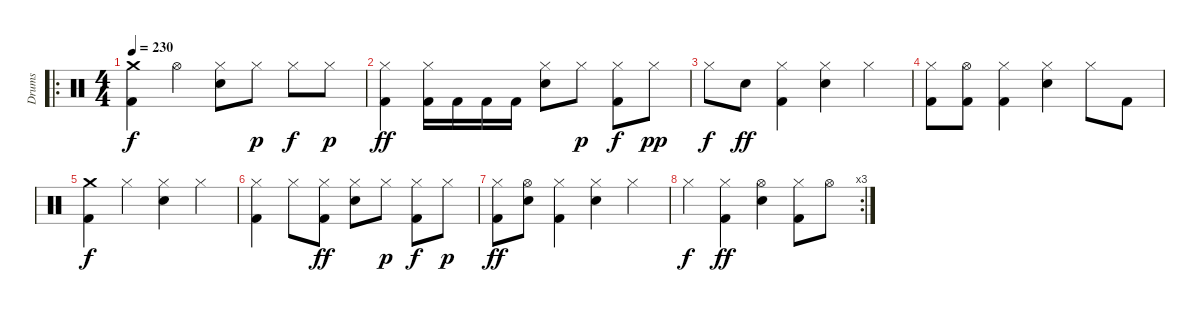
\track ("Drums" "Drums") {instrument percussion}
\staff {score}
\articulation defaults
\ro
\ts (4 4)
\tempo 230
\clef neutral
\ks c
("Crash medium (hit)" "Kick (hit) 2").4{dy f} "Hi-Hat (open)".4 ("Hi-Hat (closed)" "Electric Snare (hit)").8 "Hi-Hat (closed)".8{dy p} "Hi-Hat (closed)".8{dy f} "Hi-Hat (closed)".8{dy p} |
("Hi-Hat (closed)" "Kick (hit) 2").4{dy ff} ("Hi-Hat (closed)" "Kick (hit) 2").16 "Kick (hit) 2".16 "Kick (hit) 2".16 "Kick (hit) 2".16 ("Hi-Hat (closed)" "Electric Snare (hit)").8 "Hi-Hat (closed)".8{dy p} ("Hi-Hat (closed)" "Kick (hit) 2").8{dy f} "Hi-Hat (closed)".8{dy pp} |
"Hi-Hat (closed)".8{dy f} "Electric Snare (hit)".8{dy ff} ("Hi-Hat (closed)" "Kick (hit) 2").4 ("Hi-Hat (closed)" "Electric Snare (hit)").4 "Hi-Hat (closed)".4 |
("Hi-Hat (closed)" "Kick (hit) 2").8 ("Hi-Hat (open)" "Kick (hit) 2").8 ("Hi-Hat (closed)" "Kick (hit) 2").4 ("Hi-Hat (closed)" "Electric Snare (hit)").4 "Hi-Hat (closed)".8 "Kick (hit) 2".8 |
("Crash medium (hit)" "Kick (hit) 2").4{dy f} "Hi-Hat (closed)".4 ("Hi-Hat (closed)" "Electric Snare (hit)").4 "Hi-Hat (closed)".4 |
("Hi-Hat (closed)" "Kick (hit) 2").4 "Hi-Hat (closed)".8 ("Hi-Hat (closed)" "Kick (hit) 2").8{dy ff} ("Hi-Hat (closed)" "Electric Snare (hit)").8 "Hi-Hat (closed)".8{dy p} ("Hi-Hat (closed)" "Kick (hit) 2").8{dy f} "Hi-Hat (closed)".8{dy p} |
("Hi-Hat (closed)" "Kick (hit) 2").8{dy ff} ("Hi-Hat (open)" "Electric Snare (hit)").8 ("Hi-Hat (closed)" "Kick (hit) 2").4 ("Hi-Hat (closed)" "Electric Snare (hit)").4 "Hi-Hat (closed)".4 |
\rc 3 "Hi-Hat (closed)".4{dy f}
("Hi-Hat (closed)" "Kick (hit) 2").4{dy ff} ("Hi-Hat (open)" "Electric Snare (hit)").4 ("Hi-Hat (closed)" "Kick (hit) 2").8 "Hi-Hat (open)".8
